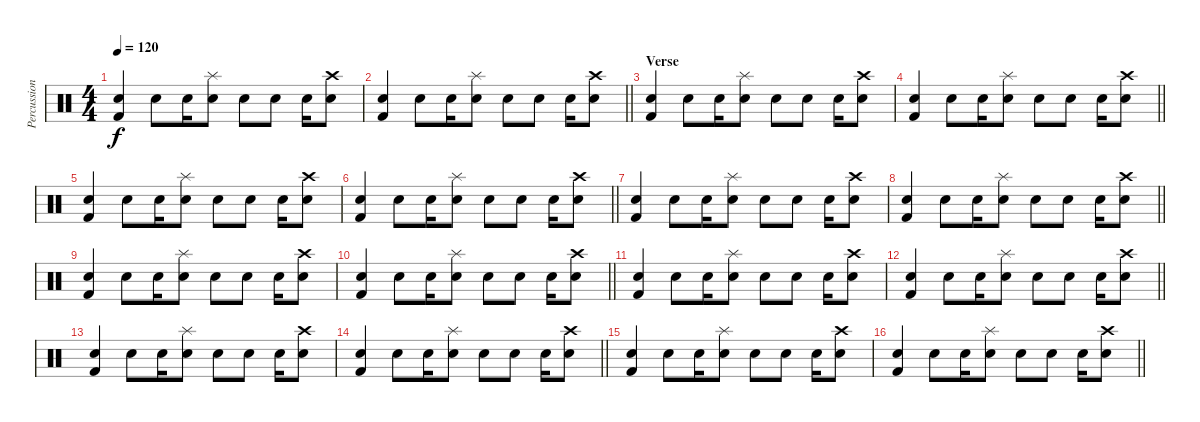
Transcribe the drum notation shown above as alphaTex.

\track ("Percussion" "Percussion") {instrument percussion}
\staff {score}
\articulation defaults
\ts (4 4)
\tempo 120
\clef neutral
\ks c
("Electric Snare (hit)" "Kick (hit) 2").4{dy f} "Electric Snare (hit)".8 "Electric Snare (hit)".16 ("Electric Snare (hit)" "Splash (hit)").8 "Electric Snare (hit)".8 "Electric Snare (hit)".8 "Electric Snare (hit)".16 ("Electric Snare (hit)" "Crash high (hit)").8 |
\barLineRight lightlight
("Electric Snare (hit)" "Kick (hit) 2").4 "Electric Snare (hit)".8 "Electric Snare (hit)".16 ("Electric Snare (hit)" "Splash (hit)").8 "Electric Snare (hit)".8 "Electric Snare (hit)".8 "Electric Snare (hit)".16 ("Electric Snare (hit)" "Crash high (hit)").8 |
\section ("" "Verse")
("Electric Snare (hit)" "Kick (hit) 2").4 "Electric Snare (hit)".8 "Electric Snare (hit)".16 ("Electric Snare (hit)" "Splash (hit)").8 "Electric Snare (hit)".8 "Electric Snare (hit)".8 "Electric Snare (hit)".16 ("Electric Snare (hit)" "Crash high (hit)").8 |
\barLineRight lightlight
("Electric Snare (hit)" "Kick (hit) 2").4 "Electric Snare (hit)".8 "Electric Snare (hit)".16 ("Electric Snare (hit)" "Splash (hit)").8 "Electric Snare (hit)".8 "Electric Snare (hit)".8 "Electric Snare (hit)".16 ("Electric Snare (hit)" "Crash high (hit)").8 |
("Electric Snare (hit)" "Kick (hit) 2").4 "Electric Snare (hit)".8 "Electric Snare (hit)".16 ("Electric Snare (hit)" "Splash (hit)").8 "Electric Snare (hit)".8 "Electric Snare (hit)".8 "Electric Snare (hit)".16 ("Electric Snare (hit)" "Crash high (hit)").8 |
\barLineRight lightlight
("Electric Snare (hit)" "Kick (hit) 2").4 "Electric Snare (hit)".8 "Electric Snare (hit)".16 ("Electric Snare (hit)" "Splash (hit)").8 "Electric Snare (hit)".8 "Electric Snare (hit)".8 "Electric Snare (hit)".16 ("Electric Snare (hit)" "Crash high (hit)").8 |
("Electric Snare (hit)" "Kick (hit) 2").4 "Electric Snare (hit)".8 "Electric Snare (hit)".16 ("Electric Snare (hit)" "Splash (hit)").8 "Electric Snare (hit)".8 "Electric Snare (hit)".8 "Electric Snare (hit)".16 ("Electric Snare (hit)" "Crash high (hit)").8 |
\barLineRight lightlight
("Electric Snare (hit)" "Kick (hit) 2").4 "Electric Snare (hit)".8 "Electric Snare (hit)".16 ("Electric Snare (hit)" "Splash (hit)").8 "Electric Snare (hit)".8 "Electric Snare (hit)".8 "Electric Snare (hit)".16 ("Electric Snare (hit)" "Crash high (hit)").8 |
("Electric Snare (hit)" "Kick (hit) 2").4 "Electric Snare (hit)".8 "Electric Snare (hit)".16 ("Electric Snare (hit)" "Splash (hit)").8 "Electric Snare (hit)".8 "Electric Snare (hit)".8 "Electric Snare (hit)".16 ("Electric Snare (hit)" "Crash high (hit)").8 |
\barLineRight lightlight
("Electric Snare (hit)" "Kick (hit) 2").4 "Electric Snare (hit)".8 "Electric Snare (hit)".16 ("Electric Snare (hit)" "Splash (hit)").8 "Electric Snare (hit)".8 "Electric Snare (hit)".8 "Electric Snare (hit)".16 ("Electric Snare (hit)" "Crash high (hit)").8 |
("Electric Snare (hit)" "Kick (hit) 2").4 "Electric Snare (hit)".8 "Electric Snare (hit)".16 ("Electric Snare (hit)" "Splash (hit)").8 "Electric Snare (hit)".8 "Electric Snare (hit)".8 "Electric Snare (hit)".16 ("Electric Snare (hit)" "Crash high (hit)").8 |
\barLineRight lightlight
("Electric Snare (hit)" "Kick (hit) 2").4 "Electric Snare (hit)".8 "Electric Snare (hit)".16 ("Electric Snare (hit)" "Splash (hit)").8 "Electric Snare (hit)".8 "Electric Snare (hit)".8 "Electric Snare (hit)".16 ("Electric Snare (hit)" "Crash high (hit)").8 |
("Electric Snare (hit)" "Kick (hit) 2").4 "Electric Snare (hit)".8 "Electric Snare (hit)".16 ("Electric Snare (hit)" "Splash (hit)").8 "Electric Snare (hit)".8 "Electric Snare (hit)".8 "Electric Snare (hit)".16 ("Electric Snare (hit)" "Crash high (hit)").8 |
\barLineRight lightlight
("Electric Snare (hit)" "Kick (hit) 2").4 "Electric Snare (hit)".8 "Electric Snare (hit)".16 ("Electric Snare (hit)" "Splash (hit)").8 "Electric Snare (hit)".8 "Electric Snare (hit)".8 "Electric Snare (hit)".16 ("Electric Snare (hit)" "Crash high (hit)").8 |
("Electric Snare (hit)" "Kick (hit) 2").4 "Electric Snare (hit)".8 "Electric Snare (hit)".16 ("Electric Snare (hit)" "Splash (hit)").8 "Electric Snare (hit)".8 "Electric Snare (hit)".8 "Electric Snare (hit)".16 ("Electric Snare (hit)" "Crash high (hit)").8 |
\barLineRight lightlight
("Electric Snare (hit)" "Kick (hit) 2").4 "Electric Snare (hit)".8 "Electric Snare (hit)".16 ("Electric Snare (hit)" "Splash (hit)").8 "Electric Snare (hit)".8 "Electric Snare (hit)".8 "Electric Snare (hit)".16 ("Electric Snare (hit)" "Crash high (hit)").8
